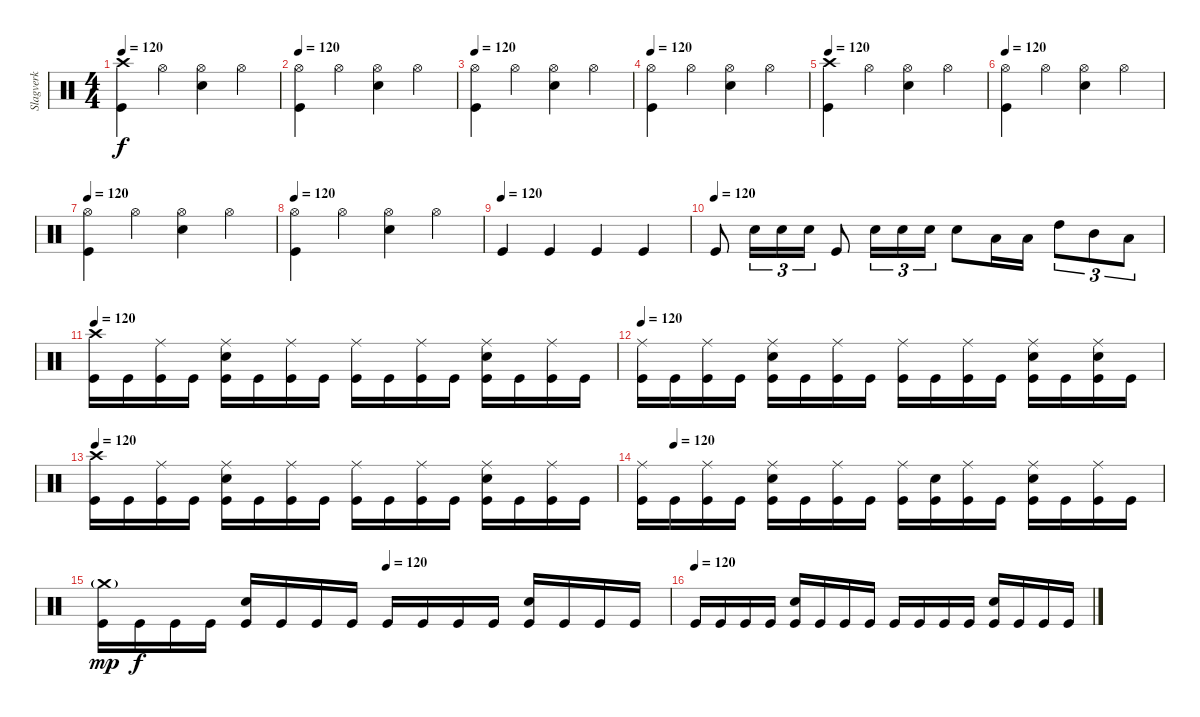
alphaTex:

\track ("Slagverk" "Slagverk") {instrument percussion}
\staff {score}
\articulation defaults
\ts (4 4)
\tempo 120
\clef neutral
\ks c
("Crash high (hit)" "Kick (hit)").4{dy f} "Hi-Hat (open)".4 ("Hi-Hat (open)" "Electric Snare (hit)").4 "Hi-Hat (open)".4 |
\tempo 120
("Hi-Hat (open)" "Kick (hit)").4 "Hi-Hat (open)".4 ("Hi-Hat (open)" "Electric Snare (hit)").4 "Hi-Hat (open)".4 |
\tempo 120
("Hi-Hat (open)" "Kick (hit)").4 "Hi-Hat (open)".4 ("Hi-Hat (open)" "Electric Snare (hit)").4 "Hi-Hat (open)".4 |
\tempo 120
("Hi-Hat (open)" "Kick (hit)").4 "Hi-Hat (open)".4 ("Hi-Hat (open)" "Electric Snare (hit)").4 "Hi-Hat (open)".4 |
\tempo 120
("Crash high (hit)" "Kick (hit)").4 "Hi-Hat (open)".4 ("Hi-Hat (open)" "Electric Snare (hit)").4 "Hi-Hat (open)".4 |
\tempo 120
("Hi-Hat (open)" "Kick (hit)").4 "Hi-Hat (open)".4 ("Hi-Hat (open)" "Electric Snare (hit)").4 "Hi-Hat (open)".4 |
\tempo 120
("Hi-Hat (open)" "Kick (hit)").4 "Hi-Hat (open)".4 ("Hi-Hat (open)" "Electric Snare (hit)").4 "Hi-Hat (open)".4 |
\tempo 120
("Hi-Hat (open)" "Kick (hit)").4 "Hi-Hat (open)".4 ("Hi-Hat (open)" "Electric Snare (hit)").4 "Hi-Hat (open)".4 |
\tempo (120)
"Kick (hit)".4 "Kick (hit)".4 "Kick (hit)".4 "Kick (hit)".4 |
\tempo (120)
"Kick (hit)".8 "Electric Snare (hit)".16{tu (3 2)} "Electric Snare (hit)".16{tu (3 2)} "Electric Snare (hit)".16{tu (3 2)} "Kick (hit)".8 "Electric Snare (hit)".16{tu (3 2)} "Electric Snare (hit)".16{tu (3 2)} "Electric Snare (hit)".16{tu (3 2)} "Electric Snare (hit)".8 "Low Floor Tom (hit)".16 "Low Floor Tom (hit)".16 "High Tom (hit)".8{tu (3 2)} "Mid Tom (hit)".8{tu (3 2)} "Low Tom (hit)".8{tu (3 2)} |
\tempo 120
("Crash high (hit)" "Kick (hit)").16 "Kick (hit)".16 ("Ride (middle)" "Kick (hit)").16 "Kick (hit)".16 ("Ride (middle)" "Electric Snare (hit)" "Kick (hit)").16 "Kick (hit)".16 ("Ride (middle)" "Kick (hit)").16 "Kick (hit)".16 ("Ride (middle)" "Kick (hit)").16 "Kick (hit)".16 ("Ride (middle)" "Kick (hit)").16 "Kick (hit)".16 ("Ride (middle)" "Electric Snare (hit)" "Kick (hit)").16 "Kick (hit)".16 ("Ride (middle)" "Kick (hit)").16 "Kick (hit)".16 |
\tempo 120
("Ride (middle)" "Kick (hit)").16 "Kick (hit)".16 ("Ride (middle)" "Kick (hit)").16 "Kick (hit)".16 ("Ride (middle)" "Electric Snare (hit)" "Kick (hit)").16 "Kick (hit)".16 ("Ride (middle)" "Kick (hit)").16 "Kick (hit)".16 ("Ride (middle)" "Kick (hit)").16 "Kick (hit)".16 ("Ride (middle)" "Kick (hit)").16 "Kick (hit)".16 ("Ride (middle)" "Electric Snare (hit)" "Kick (hit)").16 "Kick (hit)".16 ("Ride (middle)" "Electric Snare (hit)" "Kick (hit)").16 "Kick (hit)".16 |
\tempo 120
("Crash high (hit)" "Kick (hit)").16 "Kick (hit)".16 ("Ride (middle)" "Kick (hit)").16 "Kick (hit)".16 ("Ride (middle)" "Electric Snare (hit)" "Kick (hit)").16 "Kick (hit)".16 ("Ride (middle)" "Kick (hit)").16 "Kick (hit)".16 ("Ride (middle)" "Kick (hit)").16 "Kick (hit)".16 ("Ride (middle)" "Kick (hit)").16 "Kick (hit)".16 ("Ride (middle)" "Electric Snare (hit)" "Kick (hit)").16 "Kick (hit)".16 ("Ride (middle)" "Kick (hit)").16 "Kick (hit)".16 |
\tempo (120 0.0625)
("Ride (middle)" "Kick (hit)").16 "Kick (hit)".16 ("Ride (middle)" "Kick (hit)").16 "Kick (hit)".16 ("Ride (middle)" "Electric Snare (hit)" "Kick (hit)").16 "Kick (hit)".16 ("Ride (middle)" "Kick (hit)").16 "Kick (hit)".16 ("Ride (middle)" "Kick (hit)").16 ("Electric Snare (hit)" "Kick (hit)").16 ("Ride (middle)" "Kick (hit)").16 "Kick (hit)".16 ("Ride (middle)" "Electric Snare (hit)" "Kick (hit)").16 "Kick (hit)".16 ("Ride (middle)" "Kick (hit)").16 "Kick (hit)".16 |
\tempo (120 0.5)
("Crash medium (hit)"{g} "Kick (hit)").16{dy mp} "Kick (hit)".16{dy f} "Kick (hit)".16 "Kick (hit)".16 ("Electric Snare (hit)" "Kick (hit)").16 "Kick (hit)".16 "Kick (hit)".16 "Kick (hit)".16 "Kick (hit)".16 "Kick (hit)".16 "Kick (hit)".16 "Kick (hit)".16 ("Electric Snare (hit)" "Kick (hit)").16 "Kick (hit)".16 "Kick (hit)".16 "Kick (hit)".16 |
\tempo (120)
"Kick (hit)".16 "Kick (hit)".16 "Kick (hit)".16 "Kick (hit)".16 ("Electric Snare (hit)" "Kick (hit)").16 "Kick (hit)".16 "Kick (hit)".16 "Kick (hit)".16 "Kick (hit)".16 "Kick (hit)".16 "Kick (hit)".16 "Kick (hit)".16 ("Electric Snare (hit)" "Kick (hit)").16 "Kick (hit)".16 "Kick (hit)".16 "Kick (hit)".16
